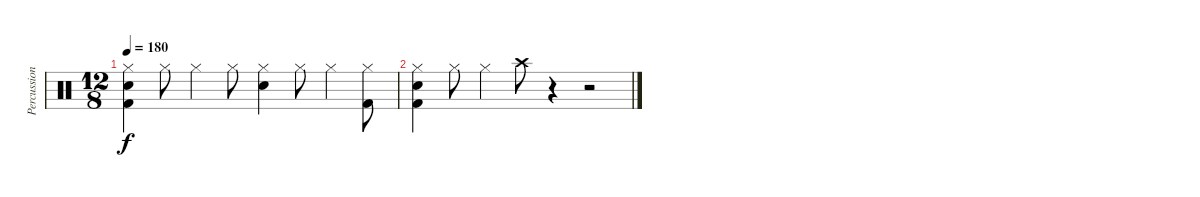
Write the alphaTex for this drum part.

\track ("Percussioni" "Percussion") {instrument percussion}
\staff {score}
\articulation defaults
\ts (12 8)
\tempo 180
\clef neutral
\ks c
("Hi-Hat (closed)" "Snare (hit) 2" "Kick (hit) 2").4{dy f} "Hi-Hat (closed)".8 "Hi-Hat (closed)".4 "Hi-Hat (closed)".8 ("Hi-Hat (closed)" "Snare (hit) 2").4 "Hi-Hat (closed)".8 "Hi-Hat (closed)".4 ("Hi-Hat (closed)" "Kick (hit) 2").8 |
("Hi-Hat (closed)" "Snare (hit) 2" "Kick (hit) 2").4 "Hi-Hat (closed)".8 "Hi-Hat (closed)".4 "Crash high (hit)".8 r.4 r.2
